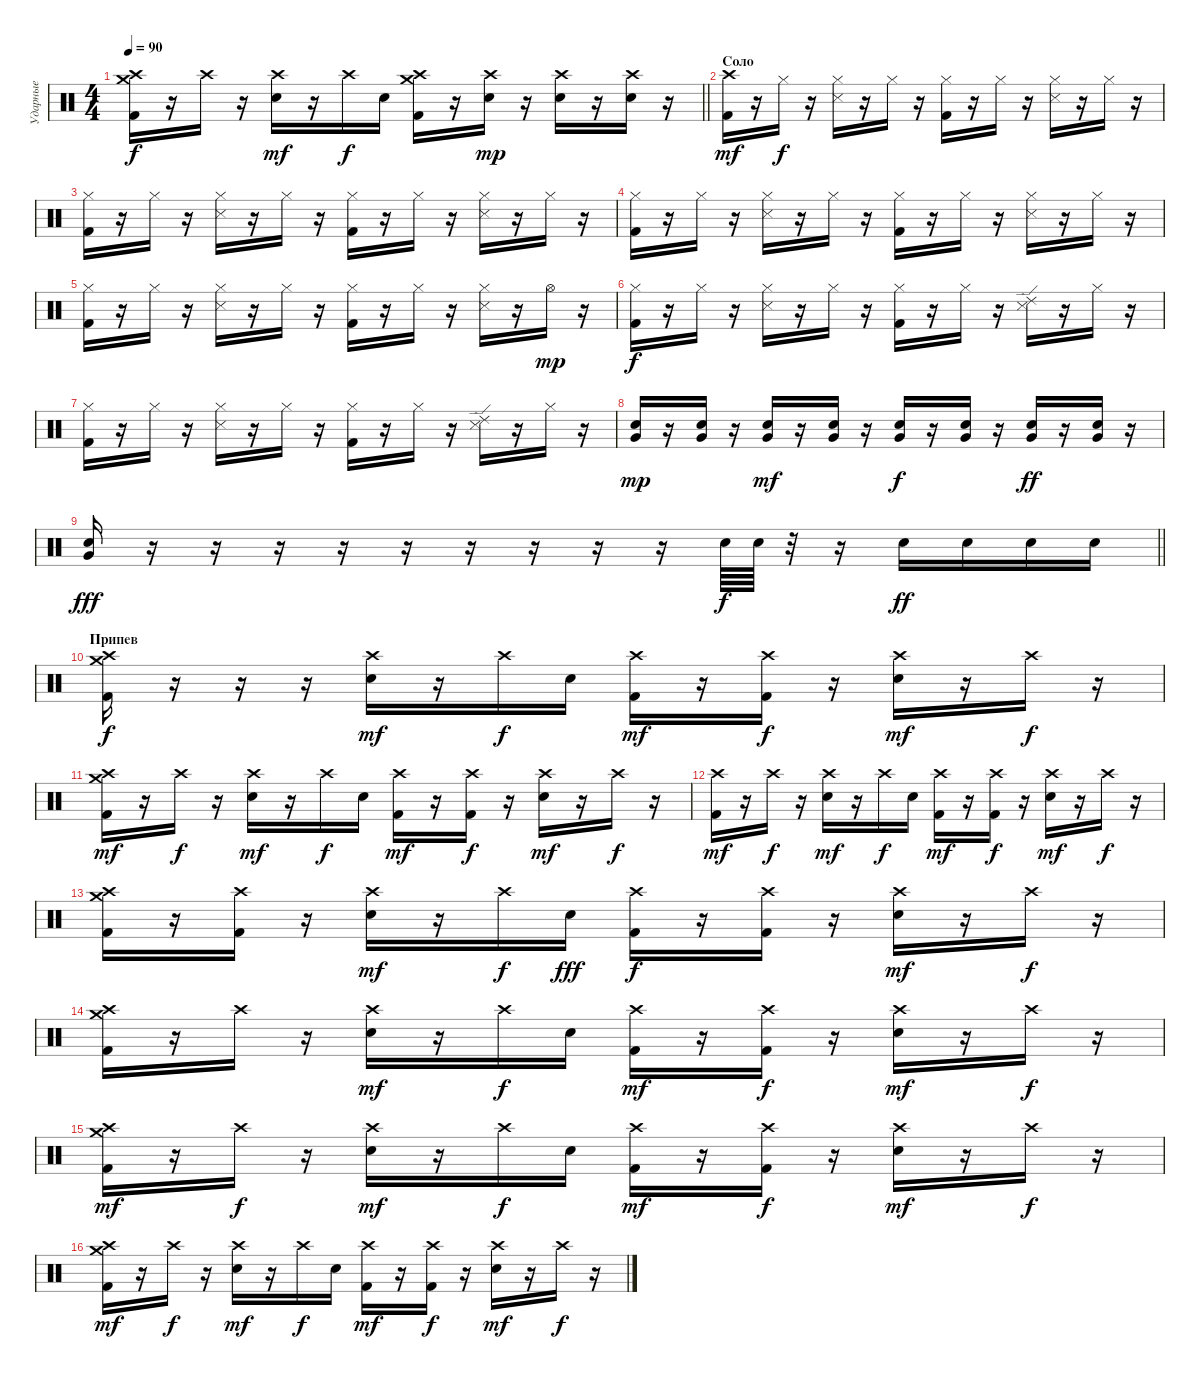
\track ("Ударные" "Ударные") {instrument percussion}
\staff {score}
\articulation defaults
\ts (4 4)
\tempo 90
\clef neutral
\barLineRight lightlight
\ks c
("Crash medium (hit)" "Crash high (hit)" "Kick (hit) 2").16{dy f} r.16 "Crash high (hit)".16 r.16 ("Crash high (hit)" "Electric Snare (hit)").16{dy mf} r.16 "Crash high (hit)".16{dy f} "Electric Snare (hit)".16 ("Crash medium (hit)" "Crash high (hit)" "Kick (hit) 2").16 r.16 ("Crash high (hit)" "Electric Snare (hit)").16{dy mp} r.16 ("Crash high (hit)" "Electric Snare (hit)").16 r.16 ("Crash high (hit)" "Electric Snare (hit)").16 r.16 |
\section ("" "Соло")
("Crash high (hit)" "Kick (hit) 2").16{dy mf} r.16 "Hi-Hat (closed)".16{dy f} r.16 ("Hi-Hat (closed)" "Snare (side stick) 3").16 r.16 "Hi-Hat (closed)".16 r.16 ("Hi-Hat (closed)" "Kick (hit) 2").16 r.16 "Hi-Hat (closed)".16 r.16 ("Hi-Hat (closed)" "Snare (side stick) 3").16 r.16 "Hi-Hat (closed)".16 r.16 |
("Hi-Hat (closed)" "Kick (hit) 2").16 r.16 "Hi-Hat (closed)".16 r.16 ("Hi-Hat (closed)" "Snare (side stick) 3").16 r.16 "Hi-Hat (closed)".16 r.16 ("Hi-Hat (closed)" "Kick (hit) 2").16 r.16 "Hi-Hat (closed)".16 r.16 ("Hi-Hat (closed)" "Snare (side stick) 3").16 r.16 "Hi-Hat (closed)".16 r.16 |
("Hi-Hat (closed)" "Kick (hit) 2").16 r.16 "Hi-Hat (closed)".16 r.16 ("Hi-Hat (closed)" "Snare (side stick) 3").16 r.16 "Hi-Hat (closed)".16 r.16 ("Hi-Hat (closed)" "Kick (hit) 2").16 r.16 "Hi-Hat (closed)".16 r.16 ("Hi-Hat (closed)" "Snare (side stick) 3").16 r.16 "Hi-Hat (closed)".16 r.16 |
("Hi-Hat (closed)" "Kick (hit) 2").16 r.16 "Hi-Hat (closed)".16 r.16 ("Hi-Hat (closed)" "Snare (side stick) 3").16 r.16 "Hi-Hat (closed)".16 r.16 ("Hi-Hat (closed)" "Kick (hit) 2").16 r.16 "Hi-Hat (closed)".16 r.16 ("Hi-Hat (closed)" "Snare (side stick) 3").16 r.16 "Hi-Hat (open)".16{dy mp} r.16 |
("Hi-Hat (closed)" "Kick (hit) 2").16{dy f} r.16 "Hi-Hat (closed)".16 r.16 ("Hi-Hat (closed)" "Snare (side stick) 3").16 r.16 "Hi-Hat (closed)".16 r.16 ("Hi-Hat (closed)" "Kick (hit) 2").16 r.16 "Hi-Hat (closed)".16 r.16 ("Ride (edge) 2" "Snare (side stick) 3").16 r.16 "Hi-Hat (closed)".16 r.16 |
("Hi-Hat (closed)" "Kick (hit) 2").16 r.16 "Hi-Hat (closed)".16 r.16 ("Hi-Hat (closed)" "Snare (side stick) 3").16 r.16 "Hi-Hat (closed)".16 r.16 ("Hi-Hat (closed)" "Kick (hit) 2").16 r.16 "Hi-Hat (closed)".16 r.16 ("Ride (edge) 2" "Snare (side stick) 3").16 r.16 "Hi-Hat (closed)".16 r.16 |
("Very Low Tom (hit)" "Electric Snare (hit)").16{dy mp} r.16 ("Very Low Tom (hit)" "Electric Snare (hit)").16 r.16 ("Very Low Tom (hit)" "Electric Snare (hit)").16{dy mf} r.16 ("Very Low Tom (hit)" "Electric Snare (hit)").16 r.16 ("Very Low Tom (hit)" "Electric Snare (hit)").16{dy f} r.16 ("Very Low Tom (hit)" "Electric Snare (hit)").16 r.16 ("Very Low Tom (hit)" "Electric Snare (hit)").16{dy ff} r.16 ("Very Low Tom (hit)" "Electric Snare (hit)").16 r.16 |
\barLineRight lightlight
("Very Low Tom (hit)" "Electric Snare (hit)").16{dy fff} r.16 r.16 r.16 r.16 r.16 r.16 r.16 r.16 r.16 "Electric Snare (hit)".64{dy f} "Electric Snare (hit)".64 r.32 r.16 "Electric Snare (hit)".16{dy ff} "Electric Snare (hit)".16 "Electric Snare (hit)".16 "Electric Snare (hit)".16 |
\section ("" "Припев")
("Crash medium (hit)" "Crash high (hit)" "Kick (hit) 2").16{dy f} r.16 r.16 r.16 ("Crash high (hit)" "Electric Snare (hit)").16{dy mf} r.16 "Crash high (hit)".16{dy f} "Electric Snare (hit)".16 ("Crash high (hit)" "Kick (hit) 2").16{dy mf} r.16 ("Crash high (hit)" "Kick (hit) 2").16{dy f} r.16 ("Crash high (hit)" "Electric Snare (hit)").16{dy mf} r.16 "Crash high (hit)".16{dy f} r.16 |
("Crash medium (hit)" "Crash high (hit)" "Kick (hit) 2").16{dy mf} r.16 "Crash high (hit)".16{dy f} r.16 ("Crash high (hit)" "Electric Snare (hit)").16{dy mf} r.16 "Crash high (hit)".16{dy f} "Electric Snare (hit)".16 ("Crash high (hit)" "Kick (hit) 2").16{dy mf} r.16 ("Crash high (hit)" "Kick (hit) 2").16{dy f} r.16 ("Crash high (hit)" "Electric Snare (hit)").16{dy mf} r.16 "Crash high (hit)".16{dy f} r.16 |
("Crash high (hit)" "Kick (hit) 2").16{dy mf} r.16 "Crash high (hit)".16{dy f} r.16 ("Crash high (hit)" "Electric Snare (hit)").16{dy mf} r.16 "Crash high (hit)".16{dy f} "Electric Snare (hit)".16 ("Crash high (hit)" "Kick (hit) 2").16{dy mf} r.16 ("Crash high (hit)" "Kick (hit) 2").16{dy f} r.16 ("Crash high (hit)" "Electric Snare (hit)").16{dy mf} r.16 "Crash high (hit)".16{dy f} r.16 |
("Crash medium (hit)" "Crash high (hit)" "Kick (hit) 2").16 r.16 ("Crash high (hit)" "Kick (hit) 2").16 r.16 ("Crash high (hit)" "Electric Snare (hit)").16{dy mf} r.16 "Crash high (hit)".16{dy f} "Electric Snare (hit)".16{dy fff} ("Crash high (hit)" "Kick (hit) 2").16{dy f} r.16 ("Crash high (hit)" "Kick (hit) 2").16 r.16 ("Crash high (hit)" "Electric Snare (hit)").16{dy mf} r.16 "Crash high (hit)".16{dy f} r.16 |
("Crash medium (hit)" "Crash high (hit)" "Kick (hit) 2").16 r.16 "Crash high (hit)".16 r.16 ("Crash high (hit)" "Electric Snare (hit)").16{dy mf} r.16 "Crash high (hit)".16{dy f} "Electric Snare (hit)".16 ("Crash high (hit)" "Kick (hit) 2").16{dy mf} r.16 ("Crash high (hit)" "Kick (hit) 2").16{dy f} r.16 ("Crash high (hit)" "Electric Snare (hit)").16{dy mf} r.16 "Crash high (hit)".16{dy f} r.16 |
("Crash medium (hit)" "Crash high (hit)" "Kick (hit) 2").16{dy mf} r.16 "Crash high (hit)".16{dy f} r.16 ("Crash high (hit)" "Electric Snare (hit)").16{dy mf} r.16 "Crash high (hit)".16{dy f} "Electric Snare (hit)".16 ("Crash high (hit)" "Kick (hit) 2").16{dy mf} r.16 ("Crash high (hit)" "Kick (hit) 2").16{dy f} r.16 ("Crash high (hit)" "Electric Snare (hit)").16{dy mf} r.16 "Crash high (hit)".16{dy f} r.16 |
("Crash medium (hit)" "Crash high (hit)" "Kick (hit) 2").16{dy mf} r.16 "Crash high (hit)".16{dy f} r.16 ("Crash high (hit)" "Electric Snare (hit)").16{dy mf} r.16 "Crash high (hit)".16{dy f} "Electric Snare (hit)".16 ("Crash high (hit)" "Kick (hit) 2").16{dy mf} r.16 ("Crash high (hit)" "Kick (hit) 2").16{dy f} r.16 ("Crash high (hit)" "Electric Snare (hit)").16{dy mf} r.16 "Crash high (hit)".16{dy f} r.16
